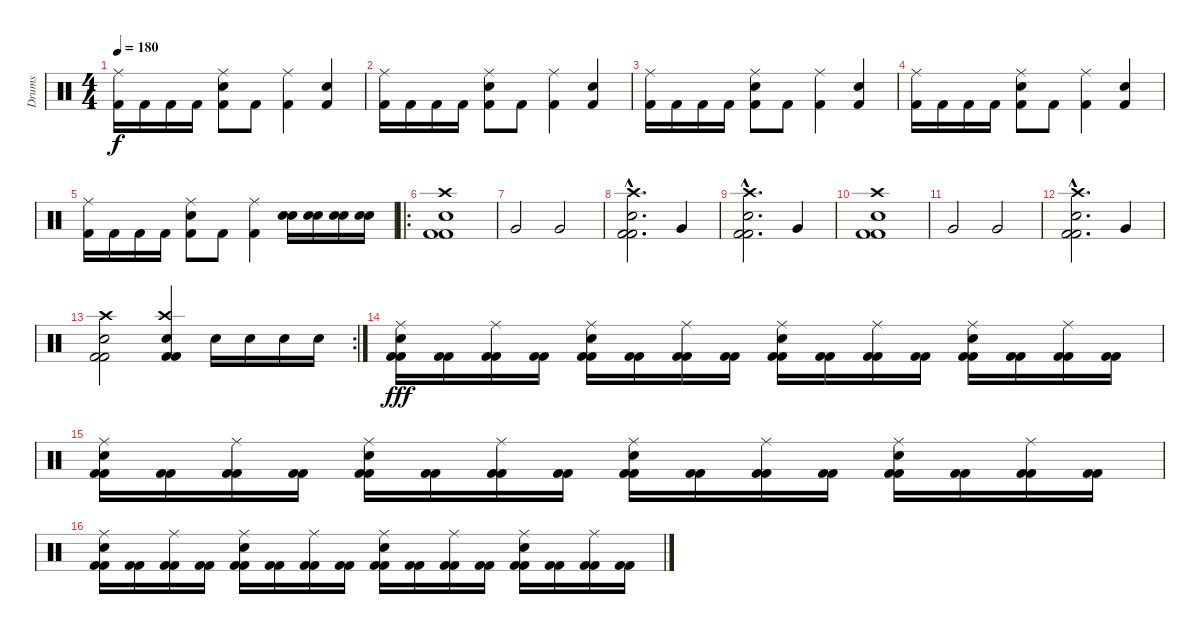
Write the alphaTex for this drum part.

\track ("Drums" "Drums") {instrument percussion}
\staff {score}
\articulation defaults
\ts (4 4)
\tempo 180
\clef neutral
\ks c
("Ride (middle)" "Kick (hit) 2").16{dy f} "Kick (hit) 2".16 "Kick (hit) 2".16 "Kick (hit) 2".16 ("Ride (middle)" "Snare (hit) 2" "Kick (hit) 2").8 "Kick (hit) 2".8 ("Ride (middle)" "Kick (hit) 2").4 ("Snare (hit) 2" "Kick (hit) 2").4 |
("Ride (middle)" "Kick (hit) 2").16 "Kick (hit) 2".16 "Kick (hit) 2".16 "Kick (hit) 2".16 ("Ride (middle)" "Snare (hit) 2" "Kick (hit) 2").8 "Kick (hit) 2".8 ("Ride (middle)" "Kick (hit) 2").4 ("Snare (hit) 2" "Kick (hit) 2").4 |
("Ride (middle)" "Kick (hit) 2").16 "Kick (hit) 2".16 "Kick (hit) 2".16 "Kick (hit) 2".16 ("Ride (middle)" "Snare (hit) 2" "Kick (hit) 2").8 "Kick (hit) 2".8 ("Ride (middle)" "Kick (hit) 2").4 ("Snare (hit) 2" "Kick (hit) 2").4 |
("Ride (middle)" "Kick (hit) 2").16 "Kick (hit) 2".16 "Kick (hit) 2".16 "Kick (hit) 2".16 ("Ride (middle)" "Snare (hit) 2" "Kick (hit) 2").8 "Kick (hit) 2".8 ("Ride (middle)" "Kick (hit) 2").4 ("Snare (hit) 2" "Kick (hit) 2").4 |
("Ride (middle)" "Kick (hit) 2").16 "Kick (hit) 2".16 "Kick (hit) 2".16 "Kick (hit) 2".16 ("Ride (middle)" "Snare (hit) 2" "Kick (hit) 2").8 "Kick (hit) 2".8 ("Ride (middle)" "Kick (hit) 2").4 ("Snare (hit) 2" "Snare (hit) 2").16 ("Snare (hit) 2" "Snare (hit) 2").16 ("Snare (hit) 2" "Snare (hit) 2").16 ("Snare (hit) 2" "Snare (hit) 2").16 |
\ro
("Crash high (hit)" "Snare (hit) 2" "Kick (hit) 2" "Kick (hit) 2").1 |
"Very Low Tom (hit)".2 "Very Low Tom (hit)".2 |
("Crash high (hit)"{hac} "Snare (hit) 2"{hac} "Kick (hit) 2"{hac} "Kick (hit) 2"{hac}).2{d} "Very Low Tom (hit)".4 |
("Crash high (hit)"{hac} "Snare (hit) 2"{hac} "Kick (hit) 2"{hac} "Kick (hit) 2"{hac}).2{d} "Very Low Tom (hit)".4 |
("Crash high (hit)" "Snare (hit) 2" "Kick (hit) 2" "Kick (hit) 2").1 |
"Very Low Tom (hit)".2 "Very Low Tom (hit)".2 |
("Crash high (hit)"{hac} "Snare (hit) 2"{hac} "Kick (hit) 2"{hac} "Kick (hit) 2"{hac}).2{d} "Very Low Tom (hit)".4 |
\rc 2
("Crash high (hit)" "Snare (hit) 2" "Kick (hit) 2" "Kick (hit) 2").2 ("Crash high (hit)" "Electric Snare (hit)" "Kick (hit) 2" "Kick (hit) 2").4 "Snare (hit) 2".16 "Snare (hit) 2".16 "Snare (hit) 2".16 "Snare (hit) 2".16 |
("Kick (hit) 2" "Kick (hit) 2" "Electric Snare (hit)" "Ride (middle)").16{dy fff} ("Kick (hit) 2" "Kick (hit) 2").16 ("Kick (hit) 2" "Kick (hit) 2" "Ride (middle)").16 ("Kick (hit) 2" "Kick (hit) 2").16 ("Kick (hit) 2" "Kick (hit) 2" "Electric Snare (hit)" "Ride (middle)").16 ("Kick (hit) 2" "Kick (hit) 2").16 ("Kick (hit) 2" "Kick (hit) 2" "Ride (middle)").16 ("Kick (hit) 2" "Kick (hit) 2").16 ("Kick (hit) 2" "Kick (hit) 2" "Electric Snare (hit)" "Ride (middle)").16 ("Kick (hit) 2" "Kick (hit) 2").16 ("Kick (hit) 2" "Kick (hit) 2" "Ride (middle)").16 ("Kick (hit) 2" "Kick (hit) 2").16 ("Kick (hit) 2" "Kick (hit) 2" "Electric Snare (hit)" "Ride (middle)").16 ("Kick (hit) 2" "Kick (hit) 2").16 ("Kick (hit) 2" "Kick (hit) 2" "Ride (middle)").16 ("Kick (hit) 2" "Kick (hit) 2").16 |
("Kick (hit) 2" "Kick (hit) 2" "Electric Snare (hit)" "Ride (middle)").16 ("Kick (hit) 2" "Kick (hit) 2").16 ("Kick (hit) 2" "Kick (hit) 2" "Ride (middle)").16 ("Kick (hit) 2" "Kick (hit) 2").16 ("Kick (hit) 2" "Kick (hit) 2" "Electric Snare (hit)" "Ride (middle)").16 ("Kick (hit) 2" "Kick (hit) 2").16 ("Kick (hit) 2" "Kick (hit) 2" "Ride (middle)").16 ("Kick (hit) 2" "Kick (hit) 2").16 ("Kick (hit) 2" "Kick (hit) 2" "Electric Snare (hit)" "Ride (middle)").16 ("Kick (hit) 2" "Kick (hit) 2").16 ("Kick (hit) 2" "Kick (hit) 2" "Ride (middle)").16 ("Kick (hit) 2" "Kick (hit) 2").16 ("Kick (hit) 2" "Kick (hit) 2" "Electric Snare (hit)" "Ride (middle)").16 ("Kick (hit) 2" "Kick (hit) 2").16 ("Kick (hit) 2" "Kick (hit) 2" "Ride (middle)").16 ("Kick (hit) 2" "Kick (hit) 2").16 |
("Kick (hit) 2" "Kick (hit) 2" "Electric Snare (hit)" "Ride (middle)").16 ("Kick (hit) 2" "Kick (hit) 2").16 ("Kick (hit) 2" "Kick (hit) 2" "Ride (middle)").16 ("Kick (hit) 2" "Kick (hit) 2").16 ("Kick (hit) 2" "Kick (hit) 2" "Electric Snare (hit)" "Ride (middle)").16 ("Kick (hit) 2" "Kick (hit) 2").16 ("Kick (hit) 2" "Kick (hit) 2" "Ride (middle)").16 ("Kick (hit) 2" "Kick (hit) 2").16 ("Kick (hit) 2" "Kick (hit) 2" "Electric Snare (hit)" "Ride (middle)").16 ("Kick (hit) 2" "Kick (hit) 2").16 ("Kick (hit) 2" "Kick (hit) 2" "Ride (middle)").16 ("Kick (hit) 2" "Kick (hit) 2").16 ("Kick (hit) 2" "Kick (hit) 2" "Electric Snare (hit)" "Ride (middle)").16 ("Kick (hit) 2" "Kick (hit) 2").16 ("Kick (hit) 2" "Kick (hit) 2" "Ride (middle)").16 ("Kick (hit) 2" "Kick (hit) 2").16
